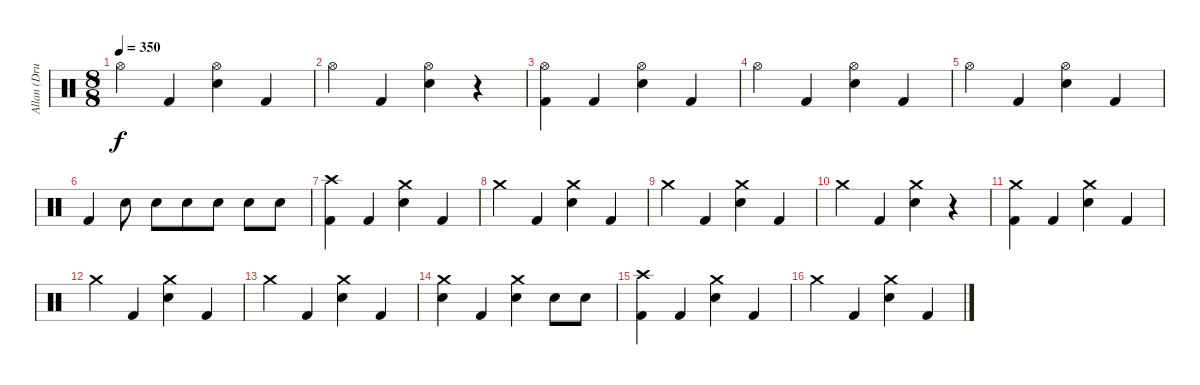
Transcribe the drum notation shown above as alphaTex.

\track ("Allan (Drums)" "Allan (Dru") {instrument percussion}
\staff {score}
\articulation defaults
\ts (8 8)
\tempo 350
\clef neutral
\ks c "Hi-Hat (open)".4{dy f} "Kick (hit) 2".4
("Hi-Hat (open)" "Snare (hit) 2").4 "Kick (hit) 2".4 |
"Hi-Hat (open)".4 "Kick (hit) 2".4 ("Hi-Hat (open)" "Snare (hit) 2").4 r.4 |
("Hi-Hat (open)" "Kick (hit) 2").4 "Kick (hit) 2".4 ("Hi-Hat (open)" "Snare (hit) 2").4 "Kick (hit) 2".4 |
"Hi-Hat (open)".4 "Kick (hit) 2".4 ("Hi-Hat (open)" "Snare (hit) 2").4 "Kick (hit) 2".4 |
"Hi-Hat (open)".4 "Kick (hit) 2".4 ("Hi-Hat (open)" "Snare (hit) 2").4 "Kick (hit) 2".4 |
"Kick (hit) 2".4 "Snare (hit) 2".8 "Snare (hit) 2".8 "Snare (hit) 2".8 "Snare (hit) 2".8 "Snare (hit) 2".8 "Snare (hit) 2".8 |
("Crash high (hit)" "Kick (hit) 2").4 "Kick (hit) 2".4 ("Crash medium (hit)" "Snare (hit) 2").4 "Kick (hit) 2".4 |
"Crash medium (hit)".4 "Kick (hit) 2".4 ("Crash medium (hit)" "Snare (hit) 2").4 "Kick (hit) 2".4 |
"Crash medium (hit)".4 "Kick (hit) 2".4 ("Crash medium (hit)" "Snare (hit) 2").4 "Kick (hit) 2".4 |
"Crash medium (hit)".4 "Kick (hit) 2".4 ("Crash medium (hit)" "Snare (hit) 2").4 r.4 |
("Crash medium (hit)" "Kick (hit) 2").4 "Kick (hit) 2".4 ("Crash medium (hit)" "Snare (hit) 2").4 "Kick (hit) 2".4 |
"Crash medium (hit)".4 "Kick (hit) 2".4 ("Crash medium (hit)" "Snare (hit) 2").4 "Kick (hit) 2".4 |
"Crash medium (hit)".4 "Kick (hit) 2".4 ("Crash medium (hit)" "Snare (hit) 2").4 "Kick (hit) 2".4 |
("Crash medium (hit)" "Snare (hit) 2").4 "Kick (hit) 2".4 ("Crash medium (hit)" "Snare (hit) 2").4 "Snare (hit) 2".8 "Snare (hit) 2".8 |
("Crash high (hit)" "Kick (hit) 2").4 "Kick (hit) 2".4 ("Crash medium (hit)" "Snare (hit) 2").4 "Kick (hit) 2".4 |
"Crash medium (hit)".4 "Kick (hit) 2".4 ("Crash medium (hit)" "Snare (hit) 2").4 "Kick (hit) 2".4
